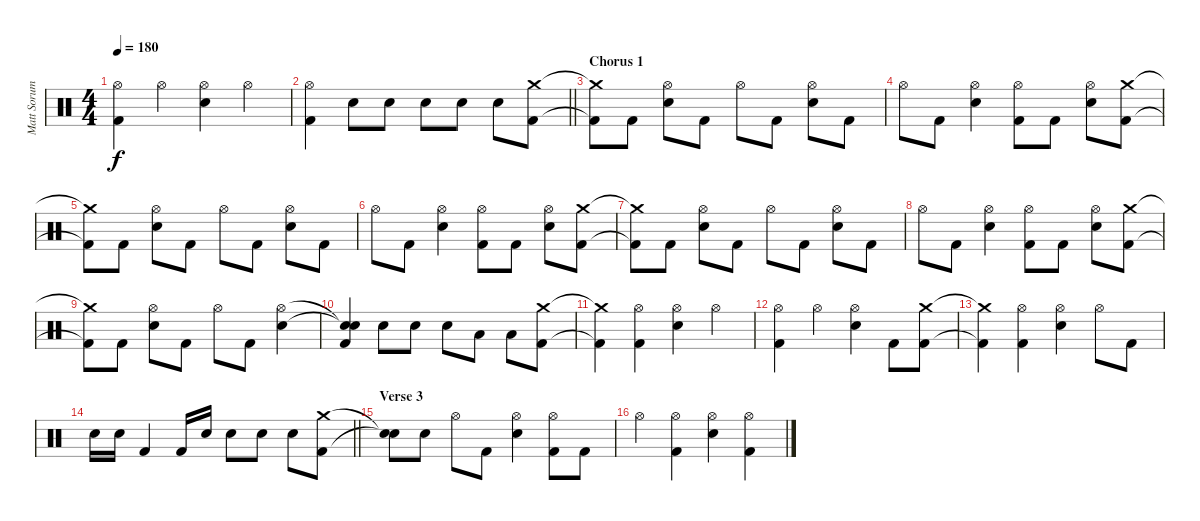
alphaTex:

\track ("Matt Sorum" "Matt Sorum") {instrument percussion}
\staff {score}
\articulation defaults
\ts (4 4)
\tempo 180
\clef neutral
\ks c
("Hi-Hat (open)" "Kick (hit) 2").4{dy f} "Hi-Hat (open)".4 ("Hi-Hat (open)" "Electric Snare (hit)").4 "Hi-Hat (open)".4 |
\barLineRight lightlight
("Hi-Hat (open)" "Kick (hit) 2").4 "Electric Snare (hit)".8 "Electric Snare (hit)".8 "Electric Snare (hit)".8 "Electric Snare (hit)".8 "Electric Snare (hit)".8 ("Crash medium (hit)" "Kick (hit) 2").8 |
\section ("" "Chorus 1")
("Crash medium (hit)"{t} "Kick (hit) 2"{t}).8 "Kick (hit) 2".8 ("Hi-Hat (open)" "Electric Snare (hit)").8 "Kick (hit) 2".8 "Hi-Hat (open)".8 "Kick (hit) 2".8 ("Hi-Hat (open)" "Electric Snare (hit)").8 "Kick (hit) 2".8 |
"Hi-Hat (open)".8 "Kick (hit) 2".8 ("Hi-Hat (open)" "Electric Snare (hit)").4 ("Hi-Hat (open)" "Kick (hit) 2").8 "Kick (hit) 2".8 ("Hi-Hat (open)" "Electric Snare (hit)").8 ("Crash medium (hit)" "Kick (hit) 2").8 |
("Crash medium (hit)"{t} "Kick (hit) 2"{t}).8 "Kick (hit) 2".8 ("Hi-Hat (open)" "Electric Snare (hit)").8 "Kick (hit) 2".8 "Hi-Hat (open)".8 "Kick (hit) 2".8 ("Hi-Hat (open)" "Electric Snare (hit)").8 "Kick (hit) 2".8 |
"Hi-Hat (open)".8 "Kick (hit) 2".8 ("Hi-Hat (open)" "Electric Snare (hit)").4 ("Hi-Hat (open)" "Kick (hit) 2").8 "Kick (hit) 2".8 ("Hi-Hat (open)" "Electric Snare (hit)").8 ("Crash medium (hit)" "Kick (hit) 2").8 |
("Crash medium (hit)"{t} "Kick (hit) 2"{t}).8 "Kick (hit) 2".8 ("Hi-Hat (open)" "Electric Snare (hit)").8 "Kick (hit) 2".8 "Hi-Hat (open)".8 "Kick (hit) 2".8 ("Hi-Hat (open)" "Electric Snare (hit)").8 "Kick (hit) 2".8 |
"Hi-Hat (open)".8 "Kick (hit) 2".8 ("Hi-Hat (open)" "Electric Snare (hit)").4 ("Hi-Hat (open)" "Kick (hit) 2").8 "Kick (hit) 2".8 ("Hi-Hat (open)" "Electric Snare (hit)").8 ("Crash medium (hit)" "Kick (hit) 2").8 |
("Crash medium (hit)"{t} "Kick (hit) 2"{t}).8 "Kick (hit) 2".8 ("Hi-Hat (open)" "Electric Snare (hit)").8 "Kick (hit) 2".8 "Hi-Hat (open)".8 "Kick (hit) 2".8 ("Hi-Hat (open)" "Electric Snare (hit)").4 |
("Snare (hit)"{t} "Snare (hit)"{t} "Kick (hit) 2").4 "Electric Snare (hit)".8 "Electric Snare (hit)".8 "Electric Snare (hit)".8 "Low Tom (hit)".8 "Low Tom (hit)".8 ("Crash medium (hit)" "Kick (hit) 2").8 |
("Crash medium (hit)"{t} "Kick (hit) 2"{t}).4 ("Hi-Hat (open)" "Kick (hit) 2").4 ("Hi-Hat (open)" "Electric Snare (hit)").4 "Hi-Hat (open)".4 |
("Hi-Hat (open)" "Kick (hit) 2").4 "Hi-Hat (open)".4 ("Hi-Hat (open)" "Electric Snare (hit)").4 "Kick (hit) 2".8 ("Crash medium (hit)" "Kick (hit) 2").8 |
("Crash medium (hit)"{t} "Kick (hit) 2"{t}).4 ("Hi-Hat (open)" "Kick (hit) 2").4 ("Hi-Hat (open)" "Electric Snare (hit)").4 "Hi-Hat (open)".8 "Kick (hit) 2".8 |
\barLineRight lightlight "Electric Snare (hit)".16 "Electric Snare (hit)".16 "Kick (hit) 2".4 "Kick (hit) 2".16 "Electric Snare (hit)".16 "Electric Snare (hit)".8 "Electric Snare (hit)".8 "Electric Snare (hit)".8
("Crash medium (hit)" "Kick (hit) 2").8 |
\section ("" "Verse 3")
("Snare (hit)"{t} "Snare (hit)"{t}).8 "Electric Snare (hit)".8 "Hi-Hat (open)".8 "Kick (hit) 2".8 ("Hi-Hat (open)" "Electric Snare (hit)").4 ("Hi-Hat (open)" "Kick (hit) 2").8 "Kick (hit) 2".8 |
"Hi-Hat (open)".4 ("Hi-Hat (open)" "Kick (hit) 2").4 ("Hi-Hat (open)" "Electric Snare (hit)").4 ("Hi-Hat (open)" "Kick (hit) 2").4
